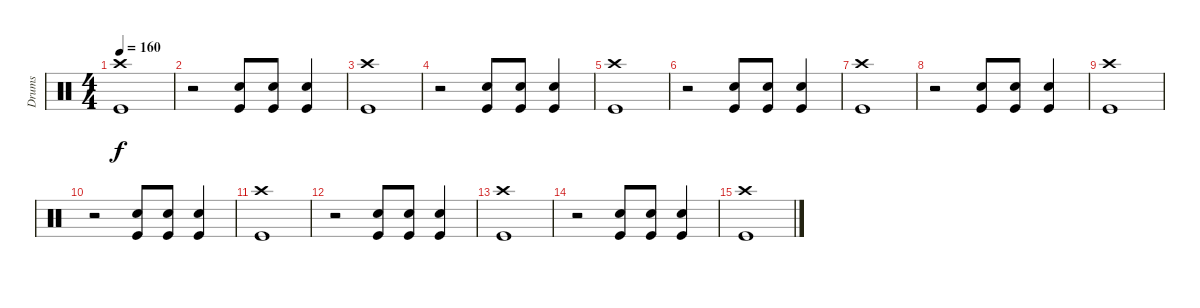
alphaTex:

\track ("Drums" "Drums") {instrument percussion}
\staff {score}
\articulation defaults
\ts (4 4)
\tempo 160
\clef neutral
\ks c
("Crash high (hit)" "Kick (hit)").1{dy f} |
r.2 ("Electric Snare (hit)" "Kick (hit)").8 ("Electric Snare (hit)" "Kick (hit)").8 ("Electric Snare (hit)" "Kick (hit)").4 |
("Crash high (hit)" "Kick (hit)").1 |
r.2 ("Electric Snare (hit)" "Kick (hit)").8 ("Electric Snare (hit)" "Kick (hit)").8 ("Electric Snare (hit)" "Kick (hit)").4 |
("Crash high (hit)" "Kick (hit)").1 |
r.2 ("Electric Snare (hit)" "Kick (hit)").8 ("Electric Snare (hit)" "Kick (hit)").8 ("Electric Snare (hit)" "Kick (hit)").4 |
("Crash high (hit)" "Kick (hit)").1 |
r.2 ("Electric Snare (hit)" "Kick (hit)").8 ("Electric Snare (hit)" "Kick (hit)").8 ("Electric Snare (hit)" "Kick (hit)").4 |
("Crash high (hit)" "Kick (hit)").1 |
r.2 ("Electric Snare (hit)" "Kick (hit)").8 ("Electric Snare (hit)" "Kick (hit)").8 ("Electric Snare (hit)" "Kick (hit)").4 |
("Crash high (hit)" "Kick (hit)").1 |
r.2 ("Electric Snare (hit)" "Kick (hit)").8 ("Electric Snare (hit)" "Kick (hit)").8 ("Electric Snare (hit)" "Kick (hit)").4 |
("Crash high (hit)" "Kick (hit)").1 |
r.2 ("Electric Snare (hit)" "Kick (hit)").8 ("Electric Snare (hit)" "Kick (hit)").8 ("Electric Snare (hit)" "Kick (hit)").4 |
("Crash high (hit)" "Kick (hit)").1
